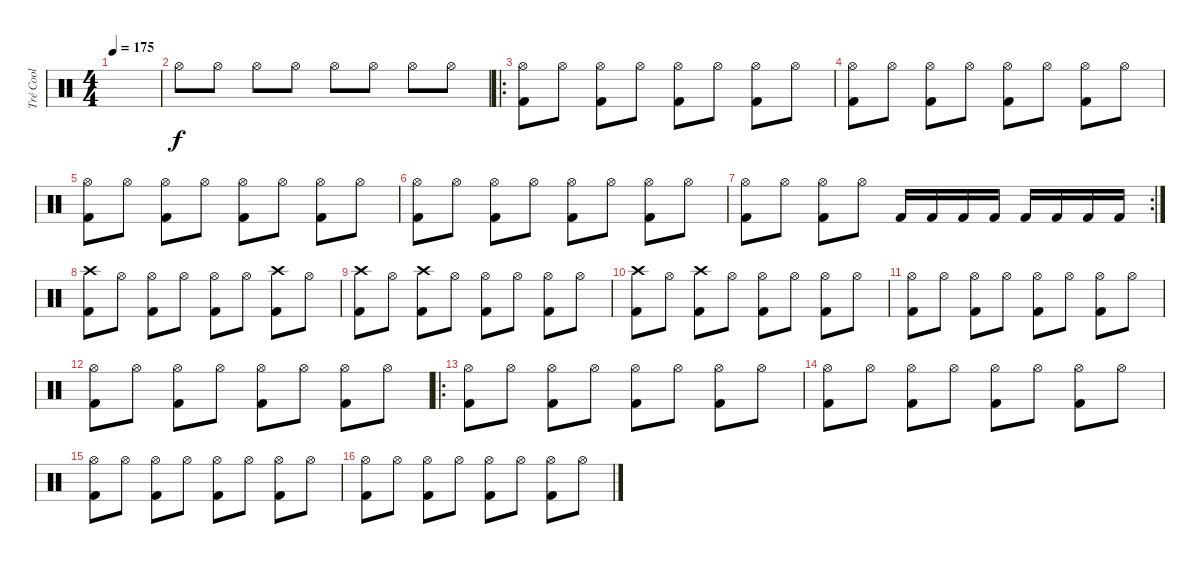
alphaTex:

\track ("Tré Cool" "Tré Cool") {instrument percussion}
\staff {score}
\articulation defaults
\ts (4 4)
\tempo 175
\clef neutral
\ks c
|
"Hi-Hat (open)".8 "Hi-Hat (open)".8 "Hi-Hat (open)".8 "Hi-Hat (open)".8 "Hi-Hat (open)".8 "Hi-Hat (open)".8 "Hi-Hat (open)".8 "Hi-Hat (open)".8 |
\ro
("Kick (hit) 2" "Hi-Hat (open)").8 "Hi-Hat (open)".8 ("Kick (hit) 2" "Hi-Hat (open)").8 "Hi-Hat (open)".8 ("Kick (hit) 2" "Hi-Hat (open)").8 "Hi-Hat (open)".8 ("Kick (hit) 2" "Hi-Hat (open)").8 "Hi-Hat (open)".8 |
("Kick (hit) 2" "Hi-Hat (open)").8 "Hi-Hat (open)".8 ("Kick (hit) 2" "Hi-Hat (open)").8 "Hi-Hat (open)".8 ("Kick (hit) 2" "Hi-Hat (open)").8 "Hi-Hat (open)".8 ("Kick (hit) 2" "Hi-Hat (open)").8 "Hi-Hat (open)".8 |
("Kick (hit) 2" "Hi-Hat (open)").8 "Hi-Hat (open)".8 ("Kick (hit) 2" "Hi-Hat (open)").8 "Hi-Hat (open)".8 ("Kick (hit) 2" "Hi-Hat (open)").8 "Hi-Hat (open)".8 ("Kick (hit) 2" "Hi-Hat (open)").8 "Hi-Hat (open)".8 |
("Kick (hit) 2" "Hi-Hat (open)").8 "Hi-Hat (open)".8 ("Kick (hit) 2" "Hi-Hat (open)").8 "Hi-Hat (open)".8 ("Kick (hit) 2" "Hi-Hat (open)").8 "Hi-Hat (open)".8 ("Kick (hit) 2" "Hi-Hat (open)").8 "Hi-Hat (open)".8 |
\rc 2
("Kick (hit) 2" "Hi-Hat (open)").8 "Hi-Hat (open)".8 ("Kick (hit) 2" "Hi-Hat (open)").8 "Hi-Hat (open)".8 "Kick (hit) 2".16 "Kick (hit) 2".16 "Kick (hit) 2".16 "Kick (hit) 2".16 "Kick (hit) 2".16 "Kick (hit) 2".16 "Kick (hit) 2".16 "Kick (hit) 2".16 |
("Kick (hit) 2" "Crash high (hit)").8 "Hi-Hat (open)".8 ("Kick (hit) 2" "Hi-Hat (open)").8 "Hi-Hat (open)".8 ("Kick (hit) 2" "Hi-Hat (open)").8 "Hi-Hat (open)".8 ("Kick (hit) 2" "Crash high (hit)").8 "Hi-Hat (open)".8 |
("Kick (hit) 2" "Crash high (hit)").8 "Hi-Hat (open)".8 ("Kick (hit) 2" "Crash high (hit)").8 "Hi-Hat (open)".8 ("Kick (hit) 2" "Hi-Hat (open)").8 "Hi-Hat (open)".8 ("Kick (hit) 2" "Hi-Hat (open)").8 "Hi-Hat (open)".8 |
("Kick (hit) 2" "Crash high (hit)").8 "Hi-Hat (open)".8 ("Kick (hit) 2" "Crash high (hit)").8 "Hi-Hat (open)".8 ("Kick (hit) 2" "Hi-Hat (open)").8 "Hi-Hat (open)".8 ("Kick (hit) 2" "Hi-Hat (open)").8 "Hi-Hat (open)".8 |
("Kick (hit) 2" "Hi-Hat (open)").8 "Hi-Hat (open)".8 ("Kick (hit) 2" "Hi-Hat (open)").8 "Hi-Hat (open)".8 ("Kick (hit) 2" "Hi-Hat (open)").8 "Hi-Hat (open)".8 ("Kick (hit) 2" "Hi-Hat (open)").8 "Hi-Hat (open)".8 |
("Kick (hit) 2" "Hi-Hat (open)").8 "Hi-Hat (open)".8 ("Kick (hit) 2" "Hi-Hat (open)").8 "Hi-Hat (open)".8 ("Kick (hit) 2" "Hi-Hat (open)").8 "Hi-Hat (open)".8 ("Kick (hit) 2" "Hi-Hat (open)").8 "Hi-Hat (open)".8 |
\ro
("Kick (hit) 2" "Hi-Hat (open)").8 "Hi-Hat (open)".8 ("Kick (hit) 2" "Hi-Hat (open)").8 "Hi-Hat (open)".8 ("Kick (hit) 2" "Hi-Hat (open)").8 "Hi-Hat (open)".8 ("Kick (hit) 2" "Hi-Hat (open)").8 "Hi-Hat (open)".8 |
("Kick (hit) 2" "Hi-Hat (open)").8 "Hi-Hat (open)".8 ("Kick (hit) 2" "Hi-Hat (open)").8 "Hi-Hat (open)".8 ("Kick (hit) 2" "Hi-Hat (open)").8 "Hi-Hat (open)".8 ("Kick (hit) 2" "Hi-Hat (open)").8 "Hi-Hat (open)".8 |
("Kick (hit) 2" "Hi-Hat (open)").8 "Hi-Hat (open)".8 ("Kick (hit) 2" "Hi-Hat (open)").8 "Hi-Hat (open)".8 ("Kick (hit) 2" "Hi-Hat (open)").8 "Hi-Hat (open)".8 ("Kick (hit) 2" "Hi-Hat (open)").8 "Hi-Hat (open)".8 |
("Kick (hit) 2" "Hi-Hat (open)").8 "Hi-Hat (open)".8 ("Kick (hit) 2" "Hi-Hat (open)").8 "Hi-Hat (open)".8 ("Kick (hit) 2" "Hi-Hat (open)").8 "Hi-Hat (open)".8 ("Kick (hit) 2" "Hi-Hat (open)").8 "Hi-Hat (open)".8
